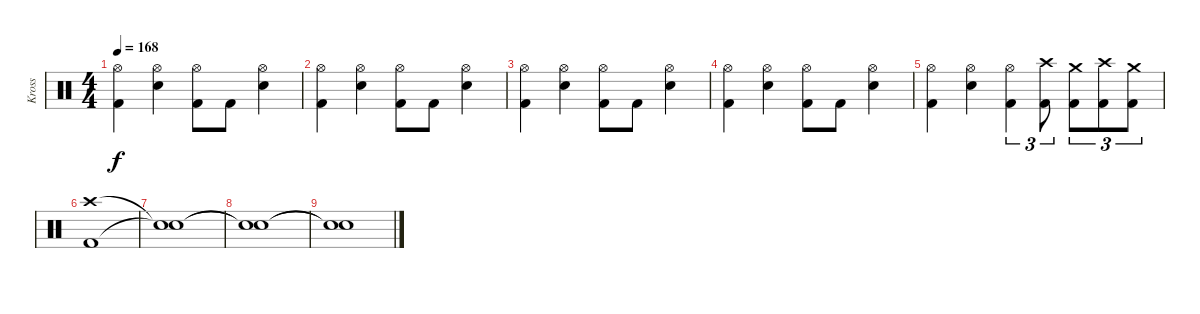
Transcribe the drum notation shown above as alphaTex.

\track ("Kross" "Kross") {instrument percussion}
\staff
\articulation defaults
\ts (4 4)
\tempo 168
\clef neutral
\ks c
("Hi-Hat (open)" "Kick (hit) 2").4{dy f} ("Hi-Hat (open)" "Electric Snare (hit)").4 ("Hi-Hat (open)" "Kick (hit) 2").8 "Kick (hit) 2".8 ("Hi-Hat (open)" "Electric Snare (hit)").4 |
("Hi-Hat (open)" "Kick (hit) 2").4 ("Hi-Hat (open)" "Electric Snare (hit)").4 ("Hi-Hat (open)" "Kick (hit) 2").8 "Kick (hit) 2".8 ("Hi-Hat (open)" "Electric Snare (hit)").4 |
("Hi-Hat (open)" "Kick (hit) 2").4 ("Hi-Hat (open)" "Electric Snare (hit)").4 ("Hi-Hat (open)" "Kick (hit) 2").8 "Kick (hit) 2".8 ("Hi-Hat (open)" "Electric Snare (hit)").4 |
("Hi-Hat (open)" "Kick (hit) 2").4 ("Hi-Hat (open)" "Electric Snare (hit)").4 ("Hi-Hat (open)" "Kick (hit) 2").8 "Kick (hit) 2".8 ("Hi-Hat (open)" "Electric Snare (hit)").4 |
("Hi-Hat (open)" "Kick (hit) 2").4 ("Hi-Hat (open)" "Electric Snare (hit)").4 ("Hi-Hat (open)" "Kick (hit) 2").4{tu (3 2)} ("Crash high (hit)" "Kick (hit) 2").8{tu (3 2)} ("Crash medium (hit)" "Kick (hit) 2").8{tu (3 2)} ("Crash high (hit)" "Kick (hit) 2").8{tu (3 2)} ("Crash medium (hit)" "Kick (hit) 2").8{tu (3 2)} |
("Crash high (hit)" "Kick (hit) 2").1 |
("Snare (hit)"{t} "Snare (hit)"{t}).1 |
("Snare (hit)"{t} "Snare (hit)"{t}).1 |
("Snare (hit)"{t} "Snare (hit)"{t}).1
